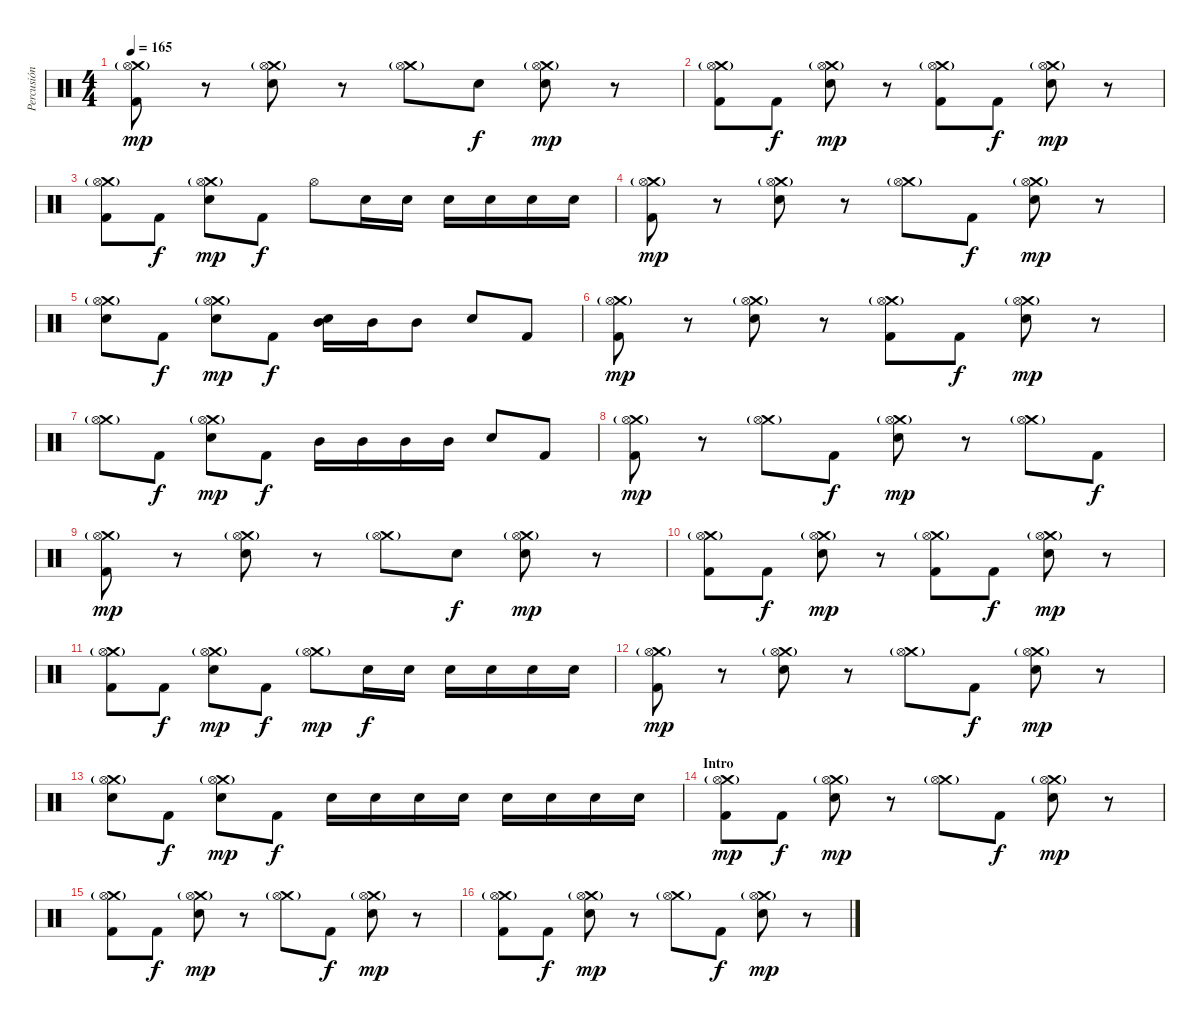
\track ("Percusión" "Percusión") {instrument percussion}
\staff {score}
\articulation defaults
\ts (4 4)
\tempo 165
\clef neutral
\ks c
("Crash medium (hit)"{g} "Hi-Hat (open)" "Kick (hit) 2").8{dy mp} r.8 ("Crash medium (hit)"{g} "Hi-Hat (open)" "Electric Snare (hit)").8 r.8 ("Crash medium (hit)"{g} "Hi-Hat (open)").8 "Electric Snare (hit)".8{dy f} ("Crash medium (hit)"{g} "Hi-Hat (open)" "Electric Snare (hit)").8{dy mp} r.8 |
("Crash medium (hit)"{g} "Hi-Hat (open)" "Kick (hit) 2").8 "Kick (hit) 2".8{dy f} ("Crash medium (hit)"{g} "Hi-Hat (open)" "Electric Snare (hit)").8{dy mp} r.8 ("Crash medium (hit)"{g} "Hi-Hat (open)" "Kick (hit) 2").8 "Kick (hit) 2".8{dy f} ("Crash medium (hit)"{g} "Hi-Hat (open)" "Electric Snare (hit)").8{dy mp} r.8 |
("Crash medium (hit)"{g} "Hi-Hat (open)" "Kick (hit) 2").8 "Kick (hit) 2".8{dy f} ("Crash medium (hit)"{g} "Hi-Hat (open)" "Electric Snare (hit)").8{dy mp} "Kick (hit) 2".8{dy f} "Hi-Hat (open)".8 "Electric Snare (hit)".16 "Electric Snare (hit)".16 "Electric Snare (hit)".16 "Electric Snare (hit)".16 "Electric Snare (hit)".16 "Electric Snare (hit)".16 |
("Crash medium (hit)"{g} "Hi-Hat (open)" "Kick (hit) 2").8{dy mp} r.8 ("Crash medium (hit)"{g} "Hi-Hat (open)" "Electric Snare (hit)").8 r.8 ("Crash medium (hit)"{g} "Hi-Hat (open)").8 "Kick (hit) 2".8{dy f} ("Crash medium (hit)"{g} "Hi-Hat (open)" "Electric Snare (hit)").8{dy mp} r.8 |
("Crash medium (hit)"{g} "Hi-Hat (open)" "Electric Snare (hit)").8 "Kick (hit) 2".8{dy f} ("Crash medium (hit)"{g} "Hi-Hat (open)" "Electric Snare (hit)").8{dy mp} "Kick (hit) 2".8{dy f} ("Electric Snare (hit)" "Mid Tom (hit)").16 "Mid Tom (hit)".16 "Mid Tom (hit)".8 "Electric Snare (hit)".8 "Kick (hit) 2".8 |
("Crash medium (hit)"{g} "Hi-Hat (open)" "Kick (hit) 2").8{dy mp} r.8 ("Crash medium (hit)"{g} "Hi-Hat (open)" "Electric Snare (hit)").8 r.8 ("Crash medium (hit)"{g} "Hi-Hat (open)" "Kick (hit) 2").8 "Kick (hit) 2".8{dy f} ("Crash medium (hit)"{g} "Hi-Hat (open)" "Electric Snare (hit)").8{dy mp} r.8 |
("Crash medium (hit)"{g} "Hi-Hat (open)").8 "Kick (hit) 2".8{dy f} ("Crash medium (hit)"{g} "Hi-Hat (open)" "Electric Snare (hit)").8{dy mp} "Kick (hit) 2".8{dy f} "Mid Tom (hit)".16 "Mid Tom (hit)".16 "Mid Tom (hit)".16 "Mid Tom (hit)".16 "Electric Snare (hit)".8 "Kick (hit) 2".8 |
("Crash medium (hit)"{g} "Hi-Hat (open)" "Kick (hit) 2").8{dy mp} r.8 ("Crash medium (hit)"{g} "Hi-Hat (open)").8 "Kick (hit) 2".8{dy f} ("Crash medium (hit)"{g} "Hi-Hat (open)" "Electric Snare (hit)").8{dy mp} r.8 ("Crash medium (hit)"{g} "Hi-Hat (open)").8 "Kick (hit) 2".8{dy f} |
("Crash medium (hit)"{g} "Hi-Hat (open)" "Kick (hit) 2").8{dy mp} r.8 ("Crash medium (hit)"{g} "Hi-Hat (open)" "Electric Snare (hit)").8 r.8 ("Crash medium (hit)"{g} "Hi-Hat (open)").8 "Electric Snare (hit)".8{dy f} ("Crash medium (hit)"{g} "Hi-Hat (open)" "Electric Snare (hit)").8{dy mp} r.8 |
("Crash medium (hit)"{g} "Hi-Hat (open)" "Kick (hit) 2").8 "Kick (hit) 2".8{dy f} ("Crash medium (hit)"{g} "Hi-Hat (open)" "Electric Snare (hit)").8{dy mp} r.8 ("Crash medium (hit)"{g} "Hi-Hat (open)" "Kick (hit) 2").8 "Kick (hit) 2".8{dy f} ("Crash medium (hit)"{g} "Hi-Hat (open)" "Electric Snare (hit)").8{dy mp} r.8 |
("Crash medium (hit)"{g} "Hi-Hat (open)" "Kick (hit) 2").8 "Kick (hit) 2".8{dy f} ("Crash medium (hit)"{g} "Hi-Hat (open)" "Electric Snare (hit)").8{dy mp} "Kick (hit) 2".8{dy f} ("Crash medium (hit)"{g} "Hi-Hat (open)").8{dy mp} "Electric Snare (hit)".16{dy f} "Electric Snare (hit)".16 "Electric Snare (hit)".16 "Electric Snare (hit)".16 "Electric Snare (hit)".16 "Electric Snare (hit)".16 |
("Crash medium (hit)"{g} "Hi-Hat (open)" "Kick (hit) 2").8{dy mp} r.8 ("Crash medium (hit)"{g} "Hi-Hat (open)" "Electric Snare (hit)").8 r.8 ("Crash medium (hit)"{g} "Hi-Hat (open)").8 "Kick (hit) 2".8{dy f} ("Crash medium (hit)"{g} "Hi-Hat (open)" "Electric Snare (hit)").8{dy mp} r.8 |
("Crash medium (hit)"{g} "Hi-Hat (open)" "Electric Snare (hit)").8 "Kick (hit) 2".8{dy f} ("Crash medium (hit)"{g} "Hi-Hat (open)" "Electric Snare (hit)").8{dy mp} "Kick (hit) 2".8{dy f} "Electric Snare (hit)".16 "Electric Snare (hit)".16 "Electric Snare (hit)".16 "Electric Snare (hit)".16 "Electric Snare (hit)".16 "Electric Snare (hit)".16 "Electric Snare (hit)".16 "Electric Snare (hit)".16 |
\section ("" "Intro")
("Crash medium (hit)"{g} "Hi-Hat (open)" "Kick (hit) 2").8{dy mp} "Kick (hit) 2".8{dy f} ("Crash medium (hit)"{g} "Hi-Hat (open)" "Electric Snare (hit)").8{dy mp} r.8 ("Crash medium (hit)"{g} "Hi-Hat (open)").8 "Kick (hit) 2".8{dy f} ("Crash medium (hit)"{g} "Hi-Hat (open)" "Electric Snare (hit)").8{dy mp} r.8 |
("Crash medium (hit)"{g} "Hi-Hat (open)" "Kick (hit) 2").8 "Kick (hit) 2".8{dy f} ("Crash medium (hit)"{g} "Hi-Hat (open)" "Electric Snare (hit)").8{dy mp} r.8 ("Crash medium (hit)"{g} "Hi-Hat (open)").8 "Kick (hit) 2".8{dy f} ("Crash medium (hit)"{g} "Hi-Hat (open)" "Electric Snare (hit)").8{dy mp} r.8 |
("Crash medium (hit)"{g} "Hi-Hat (open)" "Kick (hit) 2").8 "Kick (hit) 2".8{dy f} ("Crash medium (hit)"{g} "Hi-Hat (open)" "Electric Snare (hit)").8{dy mp} r.8 ("Crash medium (hit)"{g} "Hi-Hat (open)").8 "Kick (hit) 2".8{dy f} ("Crash medium (hit)"{g} "Hi-Hat (open)" "Electric Snare (hit)").8{dy mp} r.8
